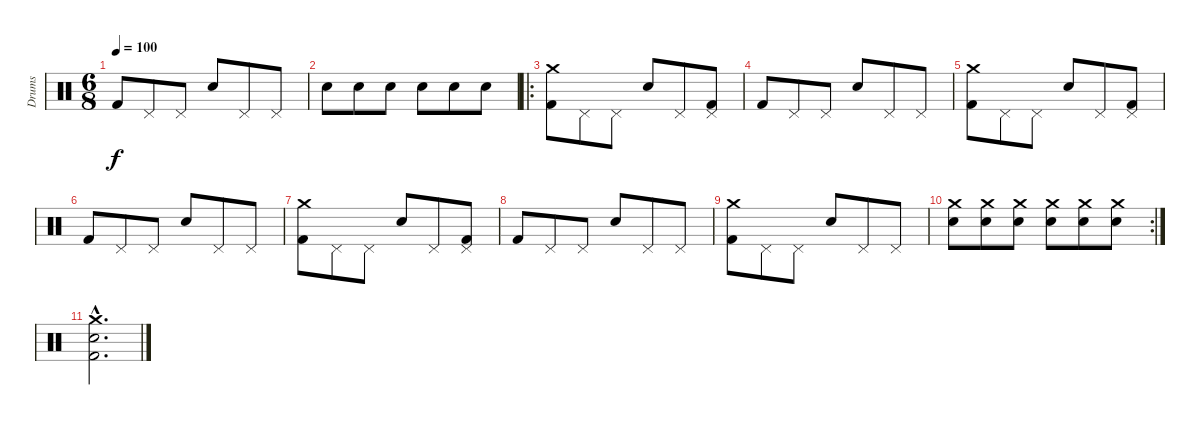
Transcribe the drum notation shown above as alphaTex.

\track ("Drums" "Drums") {instrument percussion}
\staff {score}
\articulation defaults
\ts (6 8)
\tempo 100
\clef neutral
\ks c "Kick (hit) 2".8{dy f} "Pedal Hi-Hat (hit)".8 "Pedal Hi-Hat (hit)".8 "Snare (hit) 2".8 "Pedal Hi-Hat (hit)".8 "Pedal Hi-Hat (hit)".8
|
"Snare (hit) 2".8 "Snare (hit) 2".8 "Snare (hit) 2".8 "Snare (hit) 2".8 "Snare (hit) 2".8 "Snare (hit) 2".8 |
\ro
("Crash medium (hit)" "Kick (hit) 2").8 "Pedal Hi-Hat (hit)".8 "Pedal Hi-Hat (hit)".8 "Snare (hit) 2".8 "Pedal Hi-Hat (hit)".8 ("Kick (hit) 2" "Pedal Hi-Hat (hit)").8 |
"Kick (hit) 2".8 "Pedal Hi-Hat (hit)".8 "Pedal Hi-Hat (hit)".8 "Snare (hit) 2".8 "Pedal Hi-Hat (hit)".8 "Pedal Hi-Hat (hit)".8 |
("Crash medium (hit)" "Kick (hit) 2").8 "Pedal Hi-Hat (hit)".8 "Pedal Hi-Hat (hit)".8 "Snare (hit) 2".8 "Pedal Hi-Hat (hit)".8 ("Kick (hit) 2" "Pedal Hi-Hat (hit)").8 |
"Kick (hit) 2".8 "Pedal Hi-Hat (hit)".8 "Pedal Hi-Hat (hit)".8 "Snare (hit) 2".8 "Pedal Hi-Hat (hit)".8 "Pedal Hi-Hat (hit)".8 |
("Crash medium (hit)" "Kick (hit) 2").8 "Pedal Hi-Hat (hit)".8 "Pedal Hi-Hat (hit)".8 "Snare (hit) 2".8 "Pedal Hi-Hat (hit)".8 ("Pedal Hi-Hat (hit)" "Kick (hit) 2").8 |
"Kick (hit) 2".8 "Pedal Hi-Hat (hit)".8 "Pedal Hi-Hat (hit)".8 "Snare (hit) 2".8 "Pedal Hi-Hat (hit)".8 "Pedal Hi-Hat (hit)".8 |
("Crash medium (hit)" "Kick (hit) 2").8 "Pedal Hi-Hat (hit)".8 "Pedal Hi-Hat (hit)".8 "Snare (hit) 2".8 "Pedal Hi-Hat (hit)".8 "Pedal Hi-Hat (hit)".8 |
\rc 2
("Snare (hit) 2" "Crash medium (hit)").8 ("Snare (hit) 2" "Crash medium (hit)").8 ("Snare (hit) 2" "Crash medium (hit)").8 ("Snare (hit) 2" "Crash medium (hit)").8 ("Snare (hit) 2" "Crash medium (hit)").8 ("Snare (hit) 2" "Crash medium (hit)").8 |
("Crash medium (hit)"{hac} "Snare (hit) 2"{hac} "Kick (hit) 2"{hac}).2{d}
